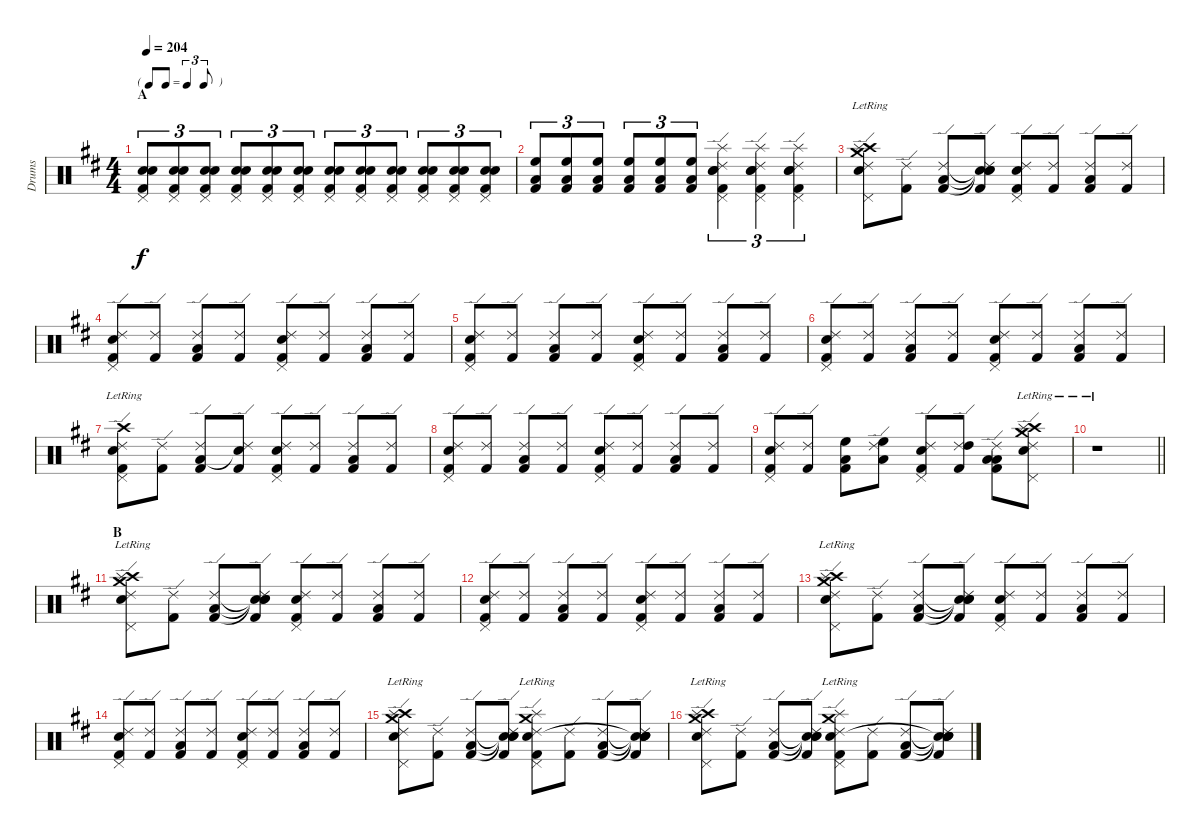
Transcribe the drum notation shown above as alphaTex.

\track ("Drums" "Drums") {instrument percussion}
\staff {score}
\articulation defaults
\ts (4 4)
\tf triplet8th
\section ("" "A")
\tempo 204
\clef neutral
\ks d
("Kick (hit) 2" "Pedal Hi-Hat (hit)" "Snare (hit) 2" "Snare (hit) 2").8{tu (3 2) dy f} ("Kick (hit) 2" "Pedal Hi-Hat (hit)" "Snare (hit) 2" "Snare (hit) 2").8{tu (3 2)} ("Kick (hit) 2" "Pedal Hi-Hat (hit)" "Snare (hit) 2" "Snare (hit) 2").8{tu (3 2)} ("Kick (hit) 2" "Pedal Hi-Hat (hit)" "Snare (hit) 2" "Snare (hit) 2").8{tu (3 2)} ("Kick (hit) 2" "Pedal Hi-Hat (hit)" "Snare (hit) 2" "Snare (hit) 2").8{tu (3 2)} ("Kick (hit) 2" "Pedal Hi-Hat (hit)" "Snare (hit) 2" "Snare (hit) 2").8{tu (3 2)} ("Kick (hit) 2" "Pedal Hi-Hat (hit)" "Snare (hit) 2" "Snare (hit) 2").8{tu (3 2)} ("Kick (hit) 2" "Pedal Hi-Hat (hit)" "Snare (hit) 2" "Snare (hit) 2").8{tu (3 2)} ("Kick (hit) 2" "Pedal Hi-Hat (hit)" "Snare (hit) 2" "Snare (hit) 2").8{tu (3 2)} ("Kick (hit) 2" "Pedal Hi-Hat (hit)" "Snare (hit) 2" "Snare (hit) 2").8{tu (3 2)} ("Kick (hit) 2" "Pedal Hi-Hat (hit)" "Snare (hit) 2" "Snare (hit) 2").8{tu (3 2)} ("Kick (hit) 2" "Pedal Hi-Hat (hit)" "Snare (hit) 2" "Snare (hit) 2").8{tu (3 2)} |
("High Floor Tom (hit)" "Kick (hit) 2" "Low Tom (hit)").8{tu (3 2)} ("High Floor Tom (hit)" "Kick (hit) 2" "Low Tom (hit)").8{tu (3 2)} ("High Floor Tom (hit)" "Kick (hit) 2" "Low Tom (hit)").8{tu (3 2)} ("High Floor Tom (hit)" "Kick (hit) 2" "Low Tom (hit)").8{tu (3 2)} ("High Floor Tom (hit)" "Kick (hit) 2" "Low Tom (hit)").8{tu (3 2)} ("High Floor Tom (hit)" "Kick (hit) 2" "Low Tom (hit)").8{tu (3 2)} ("Kick (hit) 2" "Ride (edge) 2" "Splash (hit)" "Pedal Hi-Hat (hit)" "Snare (hit) 2" "Snare (hit) 2").4{tu (3 2)} ("Kick (hit) 2" "Ride (edge) 2" "Splash (hit)" "Pedal Hi-Hat (hit)" "Snare (hit) 2" "Snare (hit) 2").4{tu (3 2)} ("Kick (hit) 2" "Ride (edge) 2" "Splash (hit)" "Pedal Hi-Hat (hit)" "Snare (hit) 2" "Snare (hit) 2").4{tu (3 2)} |
("Ride (edge) 2" "Crash medium (hit)" "Crash high (hit)"{lr} "Pedal Hi-Hat (hit)"{lr} "Splash (hit)"{lr} "Snare (hit) 2"{lr}).8 ("Kick (hit) 2" "Ride (edge) 2").8 ("Low Floor Tom (hit)" "Ride (edge) 2" "Kick (hit) 2").8 ("Snare (hit)"{t} "Snare (hit)"{t} "Snare (hit)"{t} "Kick (hit) 2" "Ride (edge) 2").8 ("Kick (hit) 2" "Snare (hit) 2" "Ride (edge) 2" "Pedal Hi-Hat (hit)").8 ("Kick (hit) 2" "Ride (edge) 2").8 ("Low Floor Tom (hit)" "Ride (edge) 2" "Kick (hit) 2").8 ("Kick (hit) 2" "Ride (edge) 2").8 |
("Kick (hit) 2" "Snare (hit) 2" "Ride (edge) 2" "Pedal Hi-Hat (hit)").8 ("Kick (hit) 2" "Ride (edge) 2").8 ("Low Floor Tom (hit)" "Ride (edge) 2" "Kick (hit) 2").8 ("Kick (hit) 2" "Ride (edge) 2").8 ("Kick (hit) 2" "Snare (hit) 2" "Ride (edge) 2" "Pedal Hi-Hat (hit)").8 ("Kick (hit) 2" "Ride (edge) 2").8 ("Low Floor Tom (hit)" "Ride (edge) 2" "Kick (hit) 2").8 ("Kick (hit) 2" "Ride (edge) 2").8 |
("Kick (hit) 2" "Snare (hit) 2" "Ride (edge) 2" "Pedal Hi-Hat (hit)").8 ("Kick (hit) 2" "Ride (edge) 2").8 ("Low Floor Tom (hit)" "Ride (edge) 2" "Kick (hit) 2").8 ("Kick (hit) 2" "Ride (edge) 2").8 ("Kick (hit) 2" "Snare (hit) 2" "Ride (edge) 2" "Pedal Hi-Hat (hit)").8 ("Kick (hit) 2" "Ride (edge) 2").8 ("Low Floor Tom (hit)" "Ride (edge) 2" "Kick (hit) 2").8 ("Kick (hit) 2" "Ride (edge) 2").8 |
("Kick (hit) 2" "Snare (hit) 2" "Ride (edge) 2" "Pedal Hi-Hat (hit)").8 ("Kick (hit) 2" "Ride (edge) 2").8 ("Low Floor Tom (hit)" "Ride (edge) 2" "Kick (hit) 2").8 ("Kick (hit) 2" "Ride (edge) 2").8 ("Kick (hit) 2" "Snare (hit) 2" "Ride (edge) 2" "Pedal Hi-Hat (hit)").8 ("Kick (hit) 2" "Ride (edge) 2").8 ("Low Floor Tom (hit)" "Ride (edge) 2" "Kick (hit) 2").8 ("Kick (hit) 2" "Ride (edge) 2").8 |
("Kick (hit) 2" "Crash high (hit)"{lr} "Snare (hit) 2" "Ride (edge) 2" "Pedal Hi-Hat (hit)").8 ("Kick (hit) 2" "Ride (edge) 2").8 ("Low Floor Tom (hit)" "Ride (edge) 2" "Kick (hit) 2").8 ("Snare (hit)"{t} "Kick (hit) 2" "Ride (edge) 2").8 ("Kick (hit) 2" "Snare (hit) 2" "Ride (edge) 2" "Pedal Hi-Hat (hit)").8 ("Kick (hit) 2" "Ride (edge) 2").8 ("Low Floor Tom (hit)" "Ride (edge) 2" "Kick (hit) 2").8 ("Kick (hit) 2" "Ride (edge) 2").8 |
("Kick (hit) 2" "Snare (hit) 2" "Ride (edge) 2" "Pedal Hi-Hat (hit)").8 ("Kick (hit) 2" "Ride (edge) 2").8 ("Low Floor Tom (hit)" "Ride (edge) 2" "Kick (hit) 2").8 ("Kick (hit) 2" "Ride (edge) 2").8 ("Kick (hit) 2" "Snare (hit) 2" "Ride (edge) 2" "Pedal Hi-Hat (hit)").8 ("Kick (hit) 2" "Ride (edge) 2").8 ("Low Floor Tom (hit)" "Ride (edge) 2" "Kick (hit) 2").8 ("Kick (hit) 2" "Ride (edge) 2").8 |
("Kick (hit) 2" "Snare (hit) 2" "Ride (edge) 2" "Pedal Hi-Hat (hit)").8 ("Kick (hit) 2" "Ride (edge) 2").8 ("Low Tom (hit)" "High Floor Tom (hit)" "Kick (hit) 2").8 ("Low Tom (hit)" "Ride (edge) 2" "High Floor Tom (hit)").8 ("Kick (hit) 2" "Snare (hit) 2" "Ride (edge) 2" "Pedal Hi-Hat (hit)").8 ("Kick (hit) 2" "Ride (edge) 2" "High Tom (hit)").8 ("Low Tom (hit)" "Low Floor Tom (hit)" "Ride (edge) 2" "Kick (hit) 2").8 ("Ride (edge) 2"{lr} "Crash medium (hit)"{lr} "Crash high (hit)"{lr} "Pedal Hi-Hat (hit)"{lr} "Splash (hit)"{lr} "Snare (hit) 2"{lr}).8 |
\barLineRight lightlight
r.1 |
\section ("" "B")
("Ride (edge) 2" "Crash medium (hit)" "Crash high (hit)"{lr} "Pedal Hi-Hat (hit)"{lr} "Splash (hit)"{lr} "Snare (hit) 2"{lr}).8 ("Kick (hit) 2" "Ride (edge) 2").8 ("Low Floor Tom (hit)" "Ride (edge) 2" "Kick (hit) 2").8 ("Snare (hit)"{t} "Snare (hit)"{t} "Snare (hit)"{t} "Kick (hit) 2" "Ride (edge) 2").8 ("Kick (hit) 2" "Snare (hit) 2" "Ride (edge) 2" "Pedal Hi-Hat (hit)").8 ("Kick (hit) 2" "Ride (edge) 2").8 ("Low Floor Tom (hit)" "Ride (edge) 2" "Kick (hit) 2").8 ("Kick (hit) 2" "Ride (edge) 2").8 |
("Kick (hit) 2" "Snare (hit) 2" "Ride (edge) 2" "Pedal Hi-Hat (hit)").8 ("Kick (hit) 2" "Ride (edge) 2").8 ("Low Floor Tom (hit)" "Ride (edge) 2" "Kick (hit) 2").8 ("Kick (hit) 2" "Ride (edge) 2").8 ("Kick (hit) 2" "Snare (hit) 2" "Ride (edge) 2" "Pedal Hi-Hat (hit)").8 ("Kick (hit) 2" "Ride (edge) 2").8 ("Low Floor Tom (hit)" "Ride (edge) 2" "Kick (hit) 2").8 ("Kick (hit) 2" "Ride (edge) 2").8 |
("Ride (edge) 2" "Crash medium (hit)" "Crash high (hit)"{lr} "Pedal Hi-Hat (hit)"{lr} "Splash (hit)"{lr} "Snare (hit) 2"{lr}).8 ("Kick (hit) 2" "Ride (edge) 2").8 ("Low Floor Tom (hit)" "Ride (edge) 2" "Kick (hit) 2").8 ("Snare (hit)"{t} "Snare (hit)"{t} "Snare (hit)"{t} "Kick (hit) 2" "Ride (edge) 2").8 ("Kick (hit) 2" "Snare (hit) 2" "Ride (edge) 2" "Pedal Hi-Hat (hit)").8 ("Kick (hit) 2" "Ride (edge) 2").8 ("Low Floor Tom (hit)" "Ride (edge) 2" "Kick (hit) 2").8 ("Kick (hit) 2" "Ride (edge) 2").8 |
("Kick (hit) 2" "Snare (hit) 2" "Ride (edge) 2" "Pedal Hi-Hat (hit)").8 ("Kick (hit) 2" "Ride (edge) 2").8 ("Low Floor Tom (hit)" "Ride (edge) 2" "Kick (hit) 2").8 ("Kick (hit) 2" "Ride (edge) 2").8 ("Kick (hit) 2" "Snare (hit) 2" "Ride (edge) 2" "Pedal Hi-Hat (hit)").8 ("Kick (hit) 2" "Ride (edge) 2").8 ("Low Floor Tom (hit)" "Ride (edge) 2" "Kick (hit) 2").8 ("Kick (hit) 2" "Ride (edge) 2").8 |
("Ride (edge) 2" "Crash medium (hit)" "Crash high (hit)"{lr} "Pedal Hi-Hat (hit)"{lr} "Splash (hit)"{lr} "Snare (hit) 2"{lr}).8 ("Kick (hit) 2" "Ride (edge) 2").8 ("Low Floor Tom (hit)" "Ride (edge) 2" "Kick (hit) 2").8 ("Snare (hit)"{t} "Snare (hit)"{t} "Snare (hit)"{t} "Kick (hit) 2" "Ride (edge) 2").8 ("Ride (edge) 2"{lr} "Crash medium (hit)"{lr} "Kick (hit) 2"{lr} "Pedal Hi-Hat (hit)"{lr} "Splash (hit)"{lr} "Snare (hit) 2"{lr}).8 ("Kick (hit) 2" "Ride (edge) 2").8 ("Low Floor Tom (hit)" "Ride (edge) 2" "Kick (hit) 2").8 ("Snare (hit)"{t} "Snare (hit)"{t} "Snare (hit)"{t} "Kick (hit) 2" "Ride (edge) 2" "Snare (hit)"{t}).8 |
("Ride (edge) 2" "Crash medium (hit)" "Crash high (hit)"{lr} "Pedal Hi-Hat (hit)"{lr} "Splash (hit)"{lr} "Snare (hit) 2"{lr}).8 ("Kick (hit) 2" "Ride (edge) 2").8 ("Low Floor Tom (hit)" "Ride (edge) 2" "Kick (hit) 2").8 ("Snare (hit)"{t} "Snare (hit)"{t} "Snare (hit)"{t} "Kick (hit) 2" "Ride (edge) 2").8 ("Ride (edge) 2"{lr} "Crash medium (hit)"{lr} "Kick (hit) 2"{lr} "Pedal Hi-Hat (hit)"{lr} "Splash (hit)"{lr} "Snare (hit) 2"{lr}).8 ("Kick (hit) 2" "Ride (edge) 2").8 ("Low Floor Tom (hit)" "Ride (edge) 2" "Kick (hit) 2").8 ("Snare (hit)"{t} "Snare (hit)"{t} "Snare (hit)"{t} "Kick (hit) 2" "Ride (edge) 2" "Snare (hit)"{t}).8
